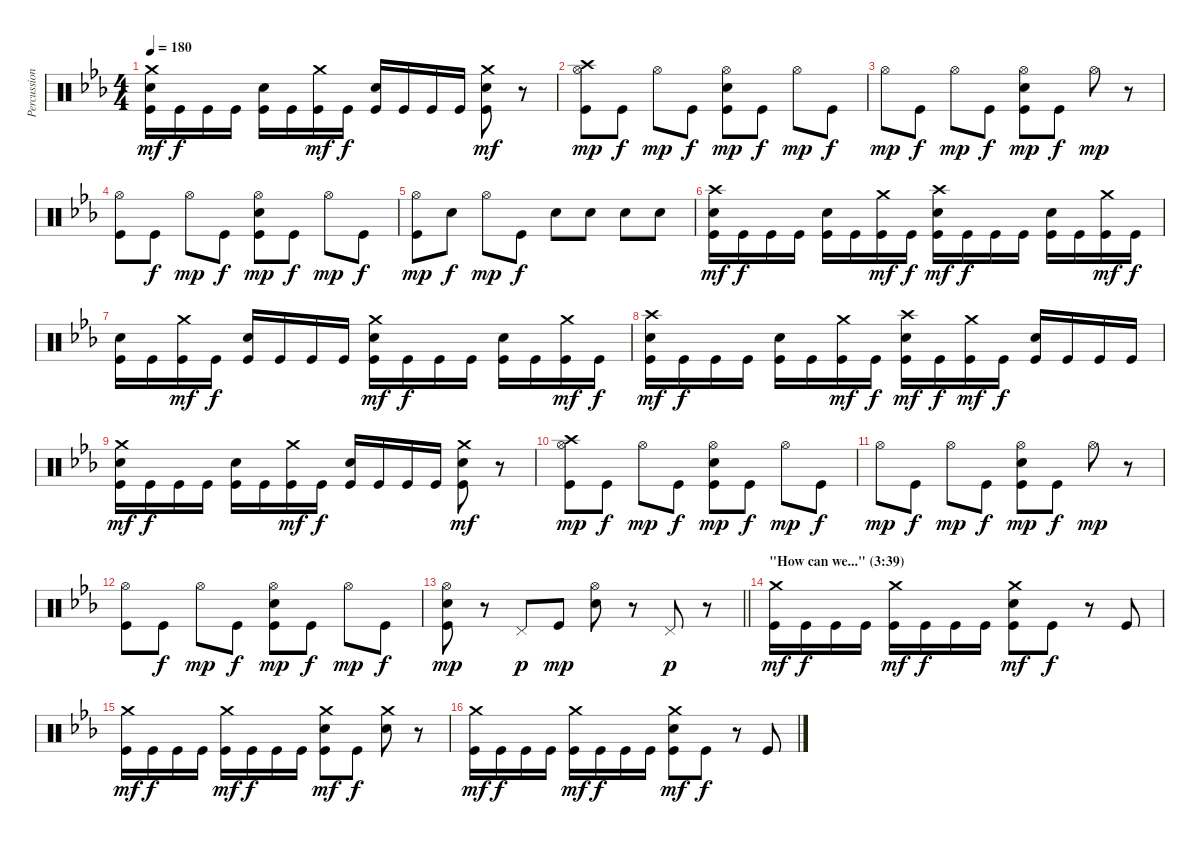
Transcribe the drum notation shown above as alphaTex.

\track ("Percussion" "Percussion") {instrument percussion}
\staff {score}
\articulation defaults
\ts (4 4)
\tempo 180
\clef neutral
\ks cminor
("Crash medium (hit)" "Snare (hit) 2" "Kick (hit)").16{dy mf} "Kick (hit)".16{dy f} "Kick (hit)".16 "Kick (hit)".16 ("Snare (hit) 2" "Kick (hit)").16 "Kick (hit)".16 ("Crash medium (hit)" "Kick (hit)").16{dy mf} "Kick (hit)".16{dy f} ("Snare (hit) 2" "Kick (hit)").16 "Kick (hit)".16 "Kick (hit)".16 "Kick (hit)".16 ("Crash medium (hit)" "Snare (hit) 2" "Kick (hit)").8{dy mf} r.8 |
("Crash high (hit)" "Hi-Hat (open)" "Kick (hit)").8{dy mp} "Kick (hit)".8{dy f} "Hi-Hat (open)".8{dy mp} "Kick (hit)".8{dy f} ("Hi-Hat (open)" "Snare (hit) 2" "Kick (hit)").8{dy mp} "Kick (hit)".8{dy f} "Hi-Hat (open)".8{dy mp} "Kick (hit)".8{dy f} |
"Hi-Hat (open)".8{dy mp} "Kick (hit)".8{dy f} "Hi-Hat (open)".8{dy mp} "Kick (hit)".8{dy f} ("Hi-Hat (open)" "Snare (hit) 2" "Kick (hit)").8{dy mp} "Kick (hit)".8{dy f} "Hi-Hat (open)".8{dy mp} r.8 |
("Hi-Hat (open)" "Kick (hit)").8 "Kick (hit)".8{dy f} "Hi-Hat (open)".8{dy mp} "Kick (hit)".8{dy f} ("Hi-Hat (open)" "Snare (hit) 2" "Kick (hit)").8{dy mp} "Kick (hit)".8{dy f} "Hi-Hat (open)".8{dy mp} "Kick (hit)".8{dy f} |
("Hi-Hat (open)" "Kick (hit)").8{dy mp} "Snare (hit) 2".8{dy f} "Hi-Hat (open)".8{dy mp} "Kick (hit)".8{dy f} "Snare (hit) 2".8 "Snare (hit) 2".8 "Snare (hit) 2".8 "Snare (hit) 2".8 |
("Crash high (hit)" "Snare (hit) 2" "Kick (hit)").16{dy mf} "Kick (hit)".16{dy f} "Kick (hit)".16 "Kick (hit)".16 ("Snare (hit) 2" "Kick (hit)").16 "Kick (hit)".16 ("Crash medium (hit)" "Kick (hit)").16{dy mf} "Kick (hit)".16{dy f} ("Crash high (hit)" "Snare (hit) 2" "Kick (hit)").16{dy mf} "Kick (hit)".16{dy f} "Kick (hit)".16 "Kick (hit)".16 ("Snare (hit) 2" "Kick (hit)").16 "Kick (hit)".16 ("Crash medium (hit)" "Kick (hit)").16{dy mf} "Kick (hit)".16{dy f} |
("Snare (hit) 2" "Kick (hit)").16 "Kick (hit)".16 ("Crash medium (hit)" "Kick (hit)").16{dy mf} "Kick (hit)".16{dy f} ("Snare (hit) 2" "Kick (hit)").16 "Kick (hit)".16 "Kick (hit)".16 "Kick (hit)".16 ("Crash medium (hit)" "Snare (hit) 2" "Kick (hit)").16{dy mf} "Kick (hit)".16{dy f} "Kick (hit)".16 "Kick (hit)".16 ("Snare (hit) 2" "Kick (hit)").16 "Kick (hit)".16 ("Crash medium (hit)" "Kick (hit)").16{dy mf} "Kick (hit)".16{dy f} |
("Crash high (hit)" "Snare (hit) 2" "Kick (hit)").16{dy mf} "Kick (hit)".16{dy f} "Kick (hit)".16 "Kick (hit)".16 ("Snare (hit) 2" "Kick (hit)").16 "Kick (hit)".16 ("Crash medium (hit)" "Kick (hit)").16{dy mf} "Kick (hit)".16{dy f} ("Crash high (hit)" "Snare (hit) 2" "Kick (hit)").16{dy mf} "Kick (hit)".16{dy f} ("Crash medium (hit)" "Kick (hit)").16{dy mf} "Kick (hit)".16{dy f} ("Snare (hit) 2" "Kick (hit)").16 "Kick (hit)".16 "Kick (hit)".16 "Kick (hit)".16 |
("Crash medium (hit)" "Snare (hit) 2" "Kick (hit)").16{dy mf} "Kick (hit)".16{dy f} "Kick (hit)".16 "Kick (hit)".16 ("Snare (hit) 2" "Kick (hit)").16 "Kick (hit)".16 ("Crash medium (hit)" "Kick (hit)").16{dy mf} "Kick (hit)".16{dy f} ("Snare (hit) 2" "Kick (hit)").16 "Kick (hit)".16 "Kick (hit)".16 "Kick (hit)".16 ("Crash medium (hit)" "Snare (hit) 2" "Kick (hit)").8{dy mf} r.8 |
("Crash high (hit)" "Hi-Hat (open)" "Kick (hit)").8{dy mp} "Kick (hit)".8{dy f} "Hi-Hat (open)".8{dy mp} "Kick (hit)".8{dy f} ("Hi-Hat (open)" "Snare (hit) 2" "Kick (hit)").8{dy mp} "Kick (hit)".8{dy f} "Hi-Hat (open)".8{dy mp} "Kick (hit)".8{dy f} |
"Hi-Hat (open)".8{dy mp} "Kick (hit)".8{dy f} "Hi-Hat (open)".8{dy mp} "Kick (hit)".8{dy f} ("Hi-Hat (open)" "Snare (hit) 2" "Kick (hit)").8{dy mp} "Kick (hit)".8{dy f} "Hi-Hat (open)".8{dy mp} r.8 |
("Hi-Hat (open)" "Kick (hit)").8 "Kick (hit)".8{dy f} "Hi-Hat (open)".8{dy mp} "Kick (hit)".8{dy f} ("Hi-Hat (open)" "Snare (hit) 2" "Kick (hit)").8{dy mp} "Kick (hit)".8{dy f} "Hi-Hat (open)".8{dy mp} "Kick (hit)".8{dy f} |
\barLineRight lightlight
("Hi-Hat (open)" "Snare (hit) 2" "Kick (hit)").8{dy mp} r.8 "Pedal Hi-Hat (hit)".8{dy p} "Kick (hit)".8{dy mp} ("Hi-Hat (open)" "Snare (hit) 2").8 r.8 "Pedal Hi-Hat (hit)".8{dy p} r.8 |
\section ("" "\"How can we...\" (3:39)")
("Crash medium (hit)" "Kick (hit)").16{dy mf} "Kick (hit)".16{dy f} "Kick (hit)".16 "Kick (hit)".16 ("Crash medium (hit)" "Kick (hit)").16{dy mf} "Kick (hit)".16{dy f} "Kick (hit)".16 "Kick (hit)".16 ("Crash medium (hit)" "Snare (hit) 2" "Kick (hit)").8{dy mf} "Kick (hit)".8{dy f} r.8 "Kick (hit)".8 |
("Crash medium (hit)" "Kick (hit)").16{dy mf} "Kick (hit)".16{dy f} "Kick (hit)".16 "Kick (hit)".16 ("Crash medium (hit)" "Kick (hit)").16{dy mf} "Kick (hit)".16{dy f} "Kick (hit)".16 "Kick (hit)".16 ("Crash medium (hit)" "Snare (hit) 2" "Kick (hit)").8{dy mf} "Kick (hit)".8{dy f} ("Crash medium (hit)" "Snare (hit) 2").8 r.8 |
("Crash medium (hit)" "Kick (hit)").16{dy mf} "Kick (hit)".16{dy f} "Kick (hit)".16 "Kick (hit)".16 ("Crash medium (hit)" "Kick (hit)").16{dy mf} "Kick (hit)".16{dy f} "Kick (hit)".16 "Kick (hit)".16 ("Crash medium (hit)" "Snare (hit) 2" "Kick (hit)").8{dy mf} "Kick (hit)".8{dy f} r.8 "Kick (hit)".8
